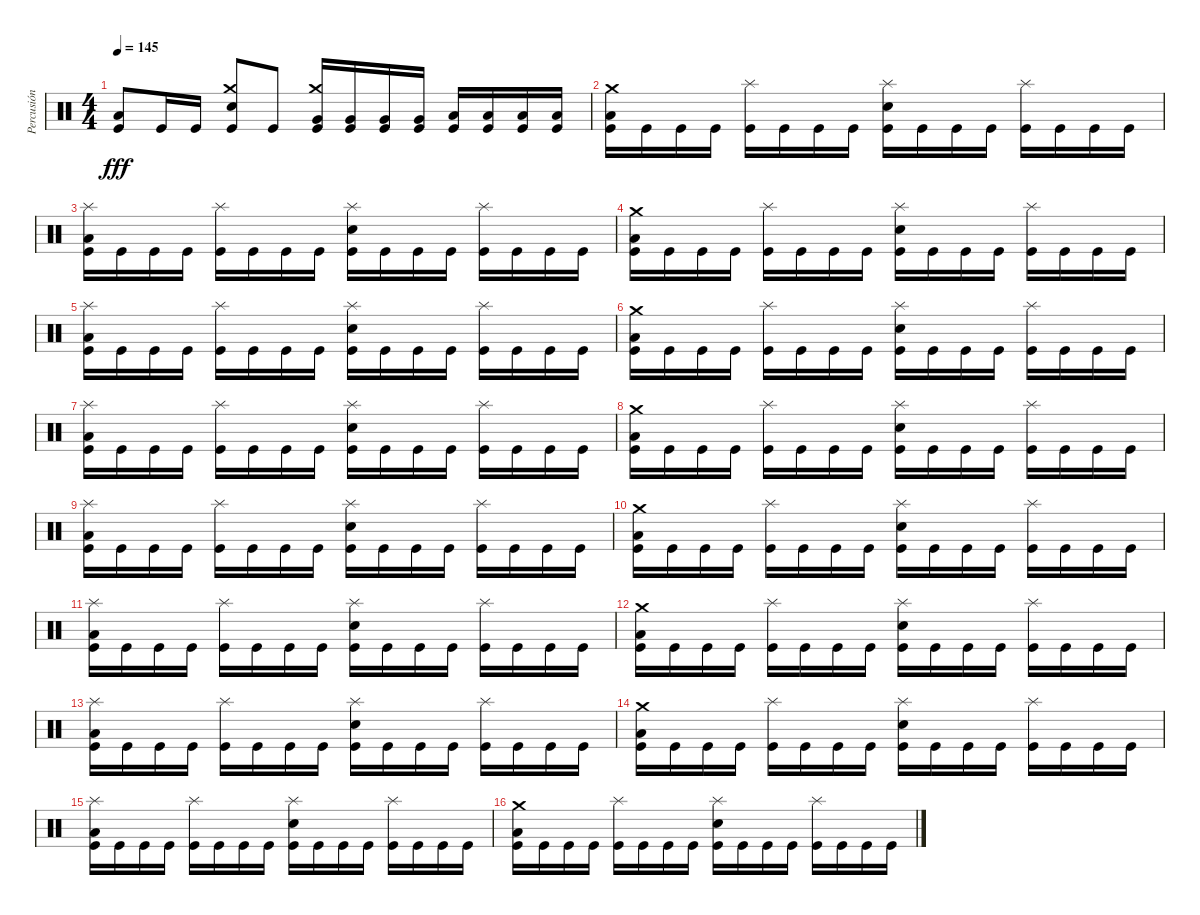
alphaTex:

\track ("Percusión" "Percusión") {instrument percussion}
\staff {score}
\articulation defaults
\ts (4 4)
\tempo 145
\clef neutral
\ks c
("Low Floor Tom (hit)" "Kick (hit)").8{dy fff} "Kick (hit)".16 "Kick (hit)".16 ("Crash medium (hit)" "Snare (hit) 2" "Kick (hit)").8 "Kick (hit)".8 ("Crash medium (hit)" "Very Low Tom (hit)" "Kick (hit)").16 ("Very Low Tom (hit)" "Kick (hit)").16 ("Very Low Tom (hit)" "Kick (hit)").16 ("Very Low Tom (hit)" "Kick (hit)").16 ("Low Floor Tom (hit)" "Kick (hit)").16 ("Low Floor Tom (hit)" "Kick (hit)").16 ("Low Floor Tom (hit)" "Kick (hit)").16 ("Low Floor Tom (hit)" "Kick (hit)").16 |
("Crash medium (hit)" "Low Floor Tom (hit)" "Kick (hit)").16 "Kick (hit)".16 "Kick (hit)".16 "Kick (hit)".16 ("Splash (hit)" "Kick (hit)").16 "Kick (hit)".16 "Kick (hit)".16 "Kick (hit)".16 ("Splash (hit)" "Snare (hit) 2" "Kick (hit)").16 "Kick (hit)".16 "Kick (hit)".16 "Kick (hit)".16 ("Splash (hit)" "Kick (hit)").16 "Kick (hit)".16 "Kick (hit)".16 "Kick (hit)".16 |
("Splash (hit)" "Low Floor Tom (hit)" "Kick (hit)").16 "Kick (hit)".16 "Kick (hit)".16 "Kick (hit)".16 ("Splash (hit)" "Kick (hit)").16 "Kick (hit)".16 "Kick (hit)".16 "Kick (hit)".16 ("Splash (hit)" "Snare (hit) 2" "Kick (hit)").16 "Kick (hit)".16 "Kick (hit)".16 "Kick (hit)".16 ("Splash (hit)" "Kick (hit)").16 "Kick (hit)".16 "Kick (hit)".16 "Kick (hit)".16 |
("Crash medium (hit)" "Low Floor Tom (hit)" "Kick (hit)").16 "Kick (hit)".16 "Kick (hit)".16 "Kick (hit)".16 ("Splash (hit)" "Kick (hit)").16 "Kick (hit)".16 "Kick (hit)".16 "Kick (hit)".16 ("Splash (hit)" "Snare (hit) 2" "Kick (hit)").16 "Kick (hit)".16 "Kick (hit)".16 "Kick (hit)".16 ("Splash (hit)" "Kick (hit)").16 "Kick (hit)".16 "Kick (hit)".16 "Kick (hit)".16 |
("Splash (hit)" "Low Floor Tom (hit)" "Kick (hit)").16 "Kick (hit)".16 "Kick (hit)".16 "Kick (hit)".16 ("Splash (hit)" "Kick (hit)").16 "Kick (hit)".16 "Kick (hit)".16 "Kick (hit)".16 ("Splash (hit)" "Snare (hit) 2" "Kick (hit)").16 "Kick (hit)".16 "Kick (hit)".16 "Kick (hit)".16 ("Splash (hit)" "Kick (hit)").16 "Kick (hit)".16 "Kick (hit)".16 "Kick (hit)".16 |
("Crash medium (hit)" "Low Floor Tom (hit)" "Kick (hit)").16 "Kick (hit)".16 "Kick (hit)".16 "Kick (hit)".16 ("Splash (hit)" "Kick (hit)").16 "Kick (hit)".16 "Kick (hit)".16 "Kick (hit)".16 ("Splash (hit)" "Snare (hit) 2" "Kick (hit)").16 "Kick (hit)".16 "Kick (hit)".16 "Kick (hit)".16 ("Splash (hit)" "Kick (hit)").16 "Kick (hit)".16 "Kick (hit)".16 "Kick (hit)".16 |
("Splash (hit)" "Low Floor Tom (hit)" "Kick (hit)").16 "Kick (hit)".16 "Kick (hit)".16 "Kick (hit)".16 ("Splash (hit)" "Kick (hit)").16 "Kick (hit)".16 "Kick (hit)".16 "Kick (hit)".16 ("Splash (hit)" "Snare (hit) 2" "Kick (hit)").16 "Kick (hit)".16 "Kick (hit)".16 "Kick (hit)".16 ("Splash (hit)" "Kick (hit)").16 "Kick (hit)".16 "Kick (hit)".16 "Kick (hit)".16 |
("Crash medium (hit)" "Low Floor Tom (hit)" "Kick (hit)").16 "Kick (hit)".16 "Kick (hit)".16 "Kick (hit)".16 ("Splash (hit)" "Kick (hit)").16 "Kick (hit)".16 "Kick (hit)".16 "Kick (hit)".16 ("Splash (hit)" "Snare (hit) 2" "Kick (hit)").16 "Kick (hit)".16 "Kick (hit)".16 "Kick (hit)".16 ("Splash (hit)" "Kick (hit)").16 "Kick (hit)".16 "Kick (hit)".16 "Kick (hit)".16 |
("Splash (hit)" "Low Floor Tom (hit)" "Kick (hit)").16 "Kick (hit)".16 "Kick (hit)".16 "Kick (hit)".16 ("Splash (hit)" "Kick (hit)").16 "Kick (hit)".16 "Kick (hit)".16 "Kick (hit)".16 ("Splash (hit)" "Snare (hit) 2" "Kick (hit)").16 "Kick (hit)".16 "Kick (hit)".16 "Kick (hit)".16 ("Splash (hit)" "Kick (hit)").16 "Kick (hit)".16 "Kick (hit)".16 "Kick (hit)".16 |
("Crash medium (hit)" "Low Floor Tom (hit)" "Kick (hit)").16 "Kick (hit)".16 "Kick (hit)".16 "Kick (hit)".16 ("Splash (hit)" "Kick (hit)").16 "Kick (hit)".16 "Kick (hit)".16 "Kick (hit)".16 ("Splash (hit)" "Snare (hit) 2" "Kick (hit)").16 "Kick (hit)".16 "Kick (hit)".16 "Kick (hit)".16 ("Splash (hit)" "Kick (hit)").16 "Kick (hit)".16 "Kick (hit)".16 "Kick (hit)".16 |
("Splash (hit)" "Low Floor Tom (hit)" "Kick (hit)").16 "Kick (hit)".16 "Kick (hit)".16 "Kick (hit)".16 ("Splash (hit)" "Kick (hit)").16 "Kick (hit)".16 "Kick (hit)".16 "Kick (hit)".16 ("Splash (hit)" "Snare (hit) 2" "Kick (hit)").16 "Kick (hit)".16 "Kick (hit)".16 "Kick (hit)".16 ("Splash (hit)" "Kick (hit)").16 "Kick (hit)".16 "Kick (hit)".16 "Kick (hit)".16 |
("Crash medium (hit)" "Low Floor Tom (hit)" "Kick (hit)").16 "Kick (hit)".16 "Kick (hit)".16 "Kick (hit)".16 ("Splash (hit)" "Kick (hit)").16 "Kick (hit)".16 "Kick (hit)".16 "Kick (hit)".16 ("Splash (hit)" "Snare (hit) 2" "Kick (hit)").16 "Kick (hit)".16 "Kick (hit)".16 "Kick (hit)".16 ("Splash (hit)" "Kick (hit)").16 "Kick (hit)".16 "Kick (hit)".16 "Kick (hit)".16 |
("Splash (hit)" "Low Floor Tom (hit)" "Kick (hit)").16 "Kick (hit)".16 "Kick (hit)".16 "Kick (hit)".16 ("Splash (hit)" "Kick (hit)").16 "Kick (hit)".16 "Kick (hit)".16 "Kick (hit)".16 ("Splash (hit)" "Snare (hit) 2" "Kick (hit)").16 "Kick (hit)".16 "Kick (hit)".16 "Kick (hit)".16 ("Splash (hit)" "Kick (hit)").16 "Kick (hit)".16 "Kick (hit)".16 "Kick (hit)".16 |
("Crash medium (hit)" "Low Floor Tom (hit)" "Kick (hit)").16 "Kick (hit)".16 "Kick (hit)".16 "Kick (hit)".16 ("Splash (hit)" "Kick (hit)").16 "Kick (hit)".16 "Kick (hit)".16 "Kick (hit)".16 ("Splash (hit)" "Snare (hit) 2" "Kick (hit)").16 "Kick (hit)".16 "Kick (hit)".16 "Kick (hit)".16 ("Splash (hit)" "Kick (hit)").16 "Kick (hit)".16 "Kick (hit)".16 "Kick (hit)".16 |
("Splash (hit)" "Low Floor Tom (hit)" "Kick (hit)").16 "Kick (hit)".16 "Kick (hit)".16 "Kick (hit)".16 ("Splash (hit)" "Kick (hit)").16 "Kick (hit)".16 "Kick (hit)".16 "Kick (hit)".16 ("Splash (hit)" "Snare (hit) 2" "Kick (hit)").16 "Kick (hit)".16 "Kick (hit)".16 "Kick (hit)".16 ("Splash (hit)" "Kick (hit)").16 "Kick (hit)".16 "Kick (hit)".16 "Kick (hit)".16 |
("Crash medium (hit)" "Low Floor Tom (hit)" "Kick (hit)").16 "Kick (hit)".16 "Kick (hit)".16 "Kick (hit)".16 ("Splash (hit)" "Kick (hit)").16 "Kick (hit)".16 "Kick (hit)".16 "Kick (hit)".16 ("Splash (hit)" "Snare (hit) 2" "Kick (hit)").16 "Kick (hit)".16 "Kick (hit)".16 "Kick (hit)".16 ("Splash (hit)" "Kick (hit)").16 "Kick (hit)".16 "Kick (hit)".16 "Kick (hit)".16
